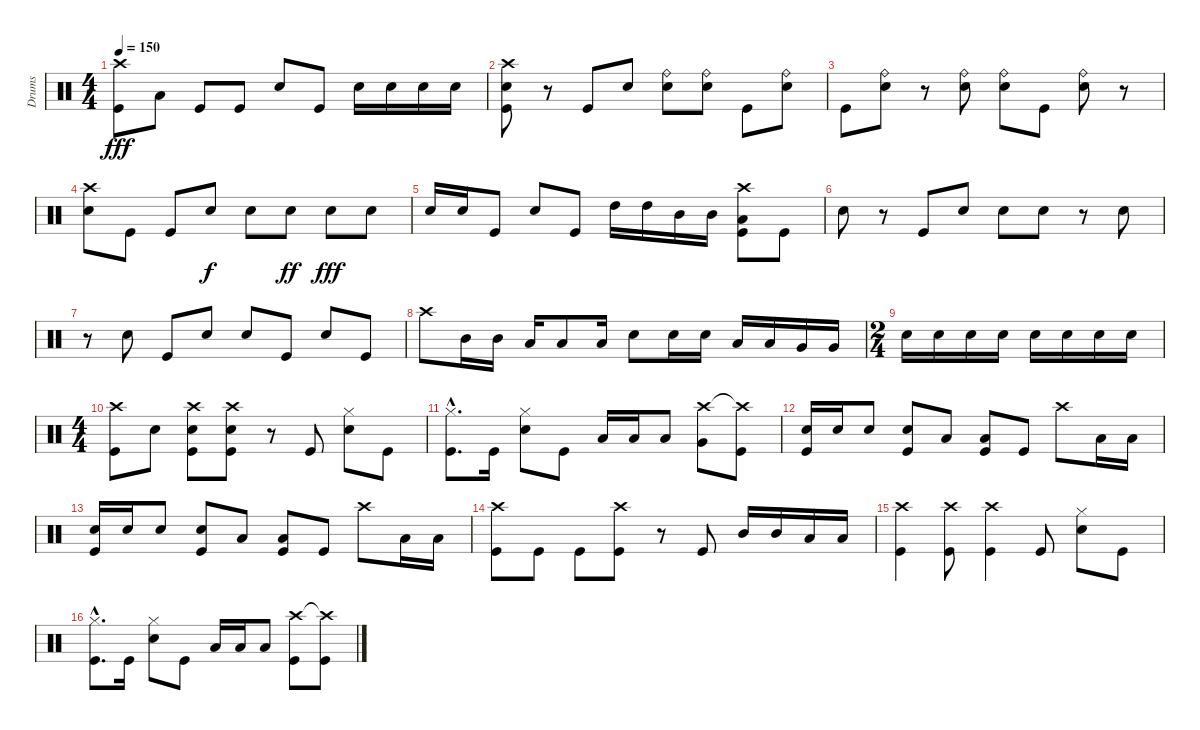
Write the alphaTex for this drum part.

\track ("Drums" "Drums") {instrument percussion}
\staff {score}
\articulation defaults
\ts (4 4)
\tempo 150
\clef neutral
\ks c
("Crash high (hit)" "Kick (hit)").8{dy fff} "Low Tom (hit)".8 "Kick (hit)".8 "Kick (hit)".8 "Snare (hit) 2".8 "Kick (hit)".8 "Snare (hit) 2".16 "Snare (hit) 2".16 "Snare (hit) 2".16 "Snare (hit) 2".16 |
("Crash high (hit)" "Snare (hit) 2" "Kick (hit)").8 r.8 "Kick (hit)".8 "Snare (hit) 2".8 ("Ride (bell)" "Snare (hit) 2").8 ("Ride (bell)" "Snare (hit) 2").8 "Kick (hit)".8 ("Ride (bell)" "Snare (hit) 2").8 |
"Kick (hit)".8 ("Ride (bell)" "Snare (hit) 2").8 r.8 ("Ride (bell)" "Snare (hit) 2").8 ("Ride (bell)" "Snare (hit) 2").8 "Kick (hit)".8 ("Ride (bell)" "Snare (hit) 2").8 r.8 |
("Crash high (hit)" "Snare (hit) 2").8 "Kick (hit)".8 "Kick (hit)".8 "Snare (hit) 2".8{dy f} "Snare (hit) 2".8 "Snare (hit) 2".8{dy ff} "Snare (hit) 2".8{dy fff} "Snare (hit) 2".8 |
"Snare (hit) 2".16 "Snare (hit) 2".16 "Kick (hit)".8 "Snare (hit) 2".8 "Kick (hit)".8 "High Tom (hit)".16 "High Tom (hit)".16 "Mid Tom (hit)".16 "Mid Tom (hit)".16 ("Crash high (hit)" "Low Tom (hit)" "Kick (hit)").8 "Kick (hit)".8 |
"Snare (hit) 2".8 r.8 "Kick (hit)".8 "Snare (hit) 2".8 "Snare (hit) 2".8 "Snare (hit) 2".8 r.8 "Snare (hit) 2".8 |
r.8 "Snare (hit) 2".8 "Kick (hit)".8 "Snare (hit) 2".8 "Snare (hit) 2".8 "Kick (hit)".8 "Snare (hit) 2".8 "Kick (hit)".8 |
"Crash high (hit)".8 "Mid Tom (hit)".16 "Mid Tom (hit)".16 "Low Tom (hit)".16 "Low Tom (hit)".8 "Low Tom (hit)".16 "Snare (hit) 2".8 "Snare (hit) 2".16 "Snare (hit) 2".16 "Low Tom (hit)".16 "Low Tom (hit)".16 "Very Low Tom (hit)".16 "Very Low Tom (hit)".16 |
\ts (2 4)
"Snare (hit) 2".16 "Snare (hit) 2".16 "Snare (hit) 2".16 "Snare (hit) 2".16 "Snare (hit) 2".16 "Snare (hit) 2".16 "Snare (hit) 2".16 "Snare (hit) 2".16 |
\ts (4 4)
("Crash high (hit)" "Kick (hit)").8 "Snare (hit) 2".8 ("Crash high (hit)" "Snare (hit) 2" "Kick (hit)").8 ("Crash high (hit)" "Snare (hit) 2" "Kick (hit)").8 r.8 "Kick (hit)".8 ("Hi-Hat (closed)" "Snare (hit) 2").8 "Kick (hit)".8 |
("Hi-Hat (closed)"{hac} "Kick (hit)"{hac}).8{d} "Kick (hit)".16 ("Hi-Hat (closed)" "Snare (hit) 2").8 "Kick (hit)".8 "Low Tom (hit)".16 "Low Tom (hit)".16 "Low Tom (hit)".8 ("Crash high (hit)" "Very Low Tom (hit)").8 ("Crash high (hit)"{t} "Kick (hit)").8 |
("Snare (hit) 2" "Kick (hit)").16 "Snare (hit) 2".16 "Snare (hit) 2".8 ("Snare (hit) 2" "Kick (hit)").8 "Low Floor Tom (hit)".8 ("Low Floor Tom (hit)" "Kick (hit)").8 "Kick (hit)".8 "Crash high (hit)".8 "Low Tom (hit)".16 "Low Tom (hit)".16 |
("Snare (hit) 2" "Kick (hit)").16 "Snare (hit) 2".16 "Snare (hit) 2".8 ("Snare (hit) 2" "Kick (hit)").8 "Low Floor Tom (hit)".8 ("Low Floor Tom (hit)" "Kick (hit)").8 "Kick (hit)".8 "Crash high (hit)".8 "Low Tom (hit)".16 "Low Tom (hit)".16 |
("Crash high (hit)" "Kick (hit)").8 "Kick (hit)".8 "Kick (hit)".8 ("Crash high (hit)" "Kick (hit)").8 r.8 "Kick (hit)".8 "Mid Tom (hit)".16 "Mid Tom (hit)".16 "Low Tom (hit)".16 "Low Tom (hit)".16 |
("Crash high (hit)" "Kick (hit)").4 ("Crash high (hit)" "Kick (hit)").8 ("Crash high (hit)" "Kick (hit)").4 "Kick (hit)".8 ("Hi-Hat (closed)" "Snare (hit) 2").8 "Kick (hit)".8 |
("Hi-Hat (closed)"{hac} "Kick (hit)"{hac}).8{d} "Kick (hit)".16 ("Hi-Hat (closed)" "Snare (hit) 2").8 "Kick (hit)".8 "Low Tom (hit)".16 "Low Tom (hit)".16 "Low Tom (hit)".8 ("Crash high (hit)" "Kick (hit)").8 ("Crash high (hit)"{t} "Kick (hit)").8
